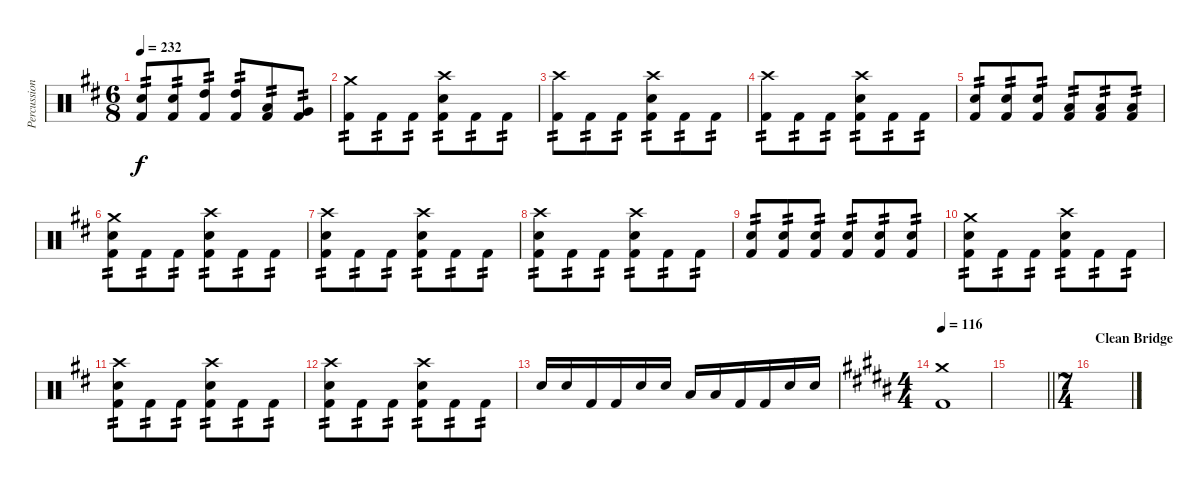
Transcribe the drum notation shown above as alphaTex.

\track ("Percussion" "Percussion") {instrument percussion}
\staff {score}
\articulation defaults
\ts (6 8)
\tempo 232
\clef neutral
\ks bminor
("Electric Snare (hit)" "Kick (hit) 2").8{tp 2 dy f} ("Electric Snare (hit)" "Kick (hit) 2").8{tp 2} ("High Tom (hit)" "Kick (hit) 2").8{tp 2} ("High Tom (hit)" "Kick (hit) 2").8{tp 2} ("Low Tom (hit)" "Kick (hit) 2").8{tp 2} ("Very Low Tom (hit)" "Kick (hit) 2").8{tp 2} |
("Crash medium (hit)" "Kick (hit) 2").8{tp 2} "Kick (hit) 2".8{tp 2} "Kick (hit) 2".8{tp 2} ("Crash high (hit)" "Electric Snare (hit)" "Kick (hit) 2").8{tp 2} "Kick (hit) 2".8{tp 2} "Kick (hit) 2".8{tp 2} |
("Crash high (hit)" "Kick (hit) 2").8{tp 2} "Kick (hit) 2".8{tp 2} "Kick (hit) 2".8{tp 2} ("Crash high (hit)" "Electric Snare (hit)" "Kick (hit) 2").8{tp 2} "Kick (hit) 2".8{tp 2} "Kick (hit) 2".8{tp 2} |
("Crash high (hit)" "Kick (hit) 2").8{tp 2} "Kick (hit) 2".8{tp 2} "Kick (hit) 2".8{tp 2} ("Crash high (hit)" "Electric Snare (hit)" "Kick (hit) 2").8{tp 2} "Kick (hit) 2".8{tp 2} "Kick (hit) 2".8{tp 2} |
("Electric Snare (hit)" "Kick (hit) 2").8{tp 2} ("Electric Snare (hit)" "Kick (hit) 2").8{tp 2} ("Electric Snare (hit)" "Kick (hit) 2").8{tp 2} ("Low Floor Tom (hit)" "Kick (hit) 2").8{tp 2} ("Low Floor Tom (hit)" "Kick (hit) 2").8{tp 2} ("Low Floor Tom (hit)" "Kick (hit) 2").8{tp 2} |
("Crash medium (hit)" "Electric Snare (hit)" "Kick (hit) 2").8{tp 2} "Kick (hit) 2".8{tp 2} "Kick (hit) 2".8{tp 2} ("Crash high (hit)" "Electric Snare (hit)" "Kick (hit) 2").8{tp 2} "Kick (hit) 2".8{tp 2} "Kick (hit) 2".8{tp 2} |
("Crash high (hit)" "Electric Snare (hit)" "Kick (hit) 2").8{tp 2} "Kick (hit) 2".8{tp 2} "Kick (hit) 2".8{tp 2} ("Crash high (hit)" "Electric Snare (hit)" "Kick (hit) 2").8{tp 2} "Kick (hit) 2".8{tp 2} "Kick (hit) 2".8{tp 2} |
("Crash high (hit)" "Electric Snare (hit)" "Kick (hit) 2").8{tp 2} "Kick (hit) 2".8{tp 2} "Kick (hit) 2".8{tp 2} ("Crash high (hit)" "Electric Snare (hit)" "Kick (hit) 2").8{tp 2} "Kick (hit) 2".8{tp 2} "Kick (hit) 2".8{tp 2} |
("Electric Snare (hit)" "Kick (hit) 2").8{tp 2} ("Electric Snare (hit)" "Kick (hit) 2").8{tp 2} ("Electric Snare (hit)" "Kick (hit) 2").8{tp 2} ("Electric Snare (hit)" "Kick (hit) 2").8{tp 2} ("Electric Snare (hit)" "Kick (hit) 2").8{tp 2} ("Electric Snare (hit)" "Kick (hit) 2").8{tp 2} |
("Crash medium (hit)" "Electric Snare (hit)" "Kick (hit) 2").8{tp 2} "Kick (hit) 2".8{tp 2} "Kick (hit) 2".8{tp 2} ("Crash high (hit)" "Electric Snare (hit)" "Kick (hit) 2").8{tp 2} "Kick (hit) 2".8{tp 2} "Kick (hit) 2".8{tp 2} |
("Crash high (hit)" "Electric Snare (hit)" "Kick (hit) 2").8{tp 2} "Kick (hit) 2".8{tp 2} "Kick (hit) 2".8{tp 2} ("Crash high (hit)" "Electric Snare (hit)" "Kick (hit) 2").8{tp 2} "Kick (hit) 2".8{tp 2} "Kick (hit) 2".8{tp 2} |
("Crash high (hit)" "Electric Snare (hit)" "Kick (hit) 2").8{tp 2} "Kick (hit) 2".8{tp 2} "Kick (hit) 2".8{tp 2} ("Crash high (hit)" "Electric Snare (hit)" "Kick (hit) 2").8{tp 2} "Kick (hit) 2".8{tp 2} "Kick (hit) 2".8{tp 2} |
"Electric Snare (hit)".16 "Electric Snare (hit)".16 "Kick (hit) 2".16 "Kick (hit) 2".16 "Electric Snare (hit)".16 "Electric Snare (hit)".16 "Low Tom (hit)".16 "Low Tom (hit)".16 "Kick (hit) 2".16 "Kick (hit) 2".16 "Electric Snare (hit)".16 "Electric Snare (hit)".16 |
\ts (4 4)
\tempo 116
\ks g#minor
("Crash medium (hit)" "Kick (hit) 2").1 |
\barLineRight lightlight
|
\ts (7 4)
\section ("" "Clean Bridge")
